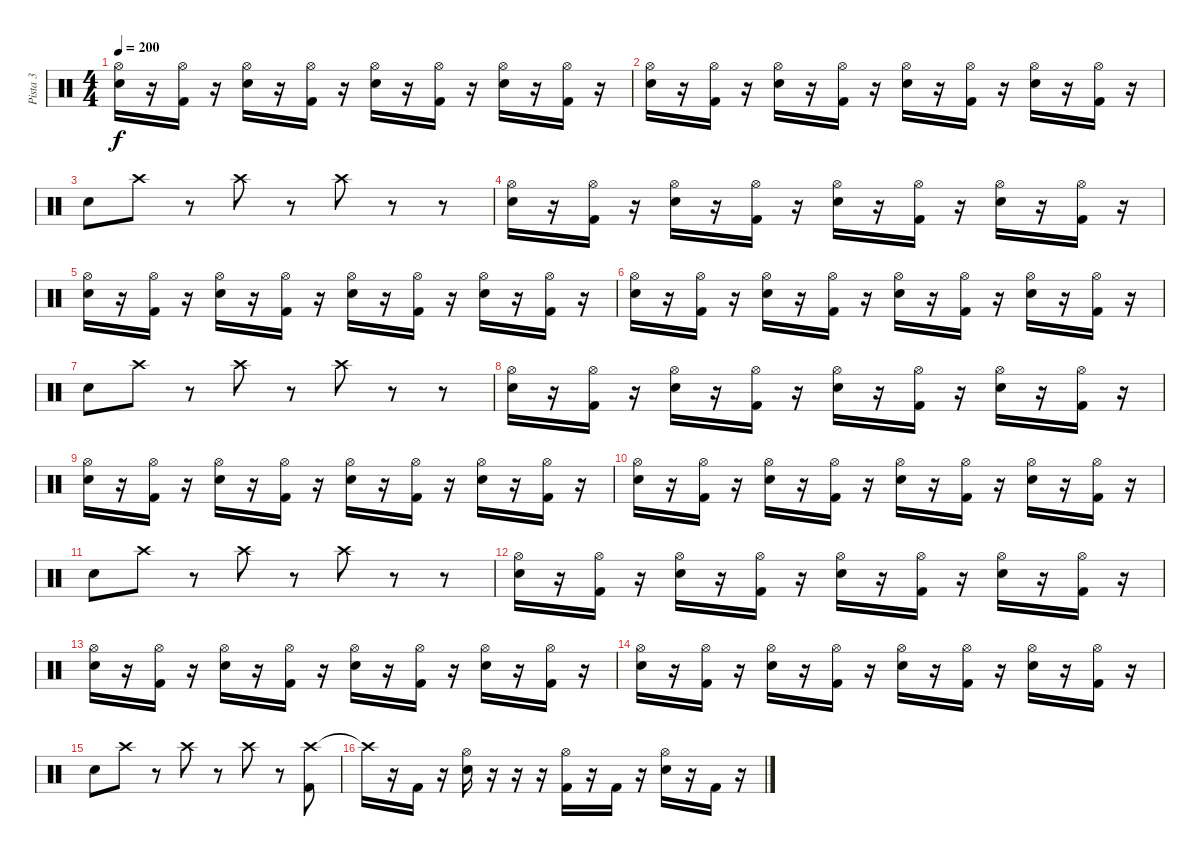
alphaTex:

\track ("Pista 3" "Pista 3") {instrument percussion}
\staff {score}
\articulation defaults
\ts (4 4)
\tempo 200
\clef neutral
\ks c
("Hi-Hat (open)" "Electric Snare (hit)").16{dy f} r.16 ("Hi-Hat (open)" "Kick (hit) 2").16 r.16 ("Hi-Hat (open)" "Electric Snare (hit)").16 r.16 ("Hi-Hat (open)" "Kick (hit) 2").16 r.16 ("Hi-Hat (open)" "Electric Snare (hit)").16 r.16 ("Hi-Hat (open)" "Kick (hit) 2").16 r.16 ("Hi-Hat (open)" "Electric Snare (hit)").16 r.16 ("Hi-Hat (open)" "Kick (hit) 2").16 r.16 |
("Hi-Hat (open)" "Electric Snare (hit)").16 r.16 ("Hi-Hat (open)" "Kick (hit) 2").16 r.16 ("Hi-Hat (open)" "Electric Snare (hit)").16 r.16 ("Hi-Hat (open)" "Kick (hit) 2").16 r.16 ("Hi-Hat (open)" "Electric Snare (hit)").16 r.16 ("Hi-Hat (open)" "Kick (hit) 2").16 r.16 ("Hi-Hat (open)" "Electric Snare (hit)").16 r.16 ("Hi-Hat (open)" "Kick (hit) 2").16 r.16 |
"Electric Snare (hit)".8 "Crash high (hit)".8 r.8 "Crash high (hit)".8 r.8 "Crash high (hit)".8 r.8 r.8 |
("Hi-Hat (open)" "Electric Snare (hit)").16 r.16 ("Hi-Hat (open)" "Kick (hit) 2").16 r.16 ("Hi-Hat (open)" "Electric Snare (hit)").16 r.16 ("Hi-Hat (open)" "Kick (hit) 2").16 r.16 ("Hi-Hat (open)" "Electric Snare (hit)").16 r.16 ("Hi-Hat (open)" "Kick (hit) 2").16 r.16 ("Hi-Hat (open)" "Electric Snare (hit)").16 r.16 ("Hi-Hat (open)" "Kick (hit) 2").16 r.16 |
("Hi-Hat (open)" "Electric Snare (hit)").16 r.16 ("Hi-Hat (open)" "Kick (hit) 2").16 r.16 ("Hi-Hat (open)" "Electric Snare (hit)").16 r.16 ("Hi-Hat (open)" "Kick (hit) 2").16 r.16 ("Hi-Hat (open)" "Electric Snare (hit)").16 r.16 ("Hi-Hat (open)" "Kick (hit) 2").16 r.16 ("Hi-Hat (open)" "Electric Snare (hit)").16 r.16 ("Hi-Hat (open)" "Kick (hit) 2").16 r.16 |
("Hi-Hat (open)" "Electric Snare (hit)").16 r.16 ("Hi-Hat (open)" "Kick (hit) 2").16 r.16 ("Hi-Hat (open)" "Electric Snare (hit)").16 r.16 ("Hi-Hat (open)" "Kick (hit) 2").16 r.16 ("Hi-Hat (open)" "Electric Snare (hit)").16 r.16 ("Hi-Hat (open)" "Kick (hit) 2").16 r.16 ("Hi-Hat (open)" "Electric Snare (hit)").16 r.16 ("Hi-Hat (open)" "Kick (hit) 2").16 r.16 |
"Electric Snare (hit)".8 "Crash high (hit)".8 r.8 "Crash high (hit)".8 r.8 "Crash high (hit)".8 r.8 r.8 |
("Hi-Hat (open)" "Electric Snare (hit)").16 r.16 ("Hi-Hat (open)" "Kick (hit) 2").16 r.16 ("Hi-Hat (open)" "Electric Snare (hit)").16 r.16 ("Hi-Hat (open)" "Kick (hit) 2").16 r.16 ("Hi-Hat (open)" "Electric Snare (hit)").16 r.16 ("Hi-Hat (open)" "Kick (hit) 2").16 r.16 ("Hi-Hat (open)" "Electric Snare (hit)").16 r.16 ("Hi-Hat (open)" "Kick (hit) 2").16 r.16 |
("Hi-Hat (open)" "Electric Snare (hit)").16 r.16 ("Hi-Hat (open)" "Kick (hit) 2").16 r.16 ("Hi-Hat (open)" "Electric Snare (hit)").16 r.16 ("Hi-Hat (open)" "Kick (hit) 2").16 r.16 ("Hi-Hat (open)" "Electric Snare (hit)").16 r.16 ("Hi-Hat (open)" "Kick (hit) 2").16 r.16 ("Hi-Hat (open)" "Electric Snare (hit)").16 r.16 ("Hi-Hat (open)" "Kick (hit) 2").16 r.16 |
("Hi-Hat (open)" "Electric Snare (hit)").16 r.16 ("Hi-Hat (open)" "Kick (hit) 2").16 r.16 ("Hi-Hat (open)" "Electric Snare (hit)").16 r.16 ("Hi-Hat (open)" "Kick (hit) 2").16 r.16 ("Hi-Hat (open)" "Electric Snare (hit)").16 r.16 ("Hi-Hat (open)" "Kick (hit) 2").16 r.16 ("Hi-Hat (open)" "Electric Snare (hit)").16 r.16 ("Hi-Hat (open)" "Kick (hit) 2").16 r.16 |
"Electric Snare (hit)".8 "Crash high (hit)".8 r.8 "Crash high (hit)".8 r.8 "Crash high (hit)".8 r.8 r.8 |
("Hi-Hat (open)" "Electric Snare (hit)").16 r.16 ("Hi-Hat (open)" "Kick (hit) 2").16 r.16 ("Hi-Hat (open)" "Electric Snare (hit)").16 r.16 ("Hi-Hat (open)" "Kick (hit) 2").16 r.16 ("Hi-Hat (open)" "Electric Snare (hit)").16 r.16 ("Hi-Hat (open)" "Kick (hit) 2").16 r.16 ("Hi-Hat (open)" "Electric Snare (hit)").16 r.16 ("Hi-Hat (open)" "Kick (hit) 2").16 r.16 |
("Hi-Hat (open)" "Electric Snare (hit)").16 r.16 ("Hi-Hat (open)" "Kick (hit) 2").16 r.16 ("Hi-Hat (open)" "Electric Snare (hit)").16 r.16 ("Hi-Hat (open)" "Kick (hit) 2").16 r.16 ("Hi-Hat (open)" "Electric Snare (hit)").16 r.16 ("Hi-Hat (open)" "Kick (hit) 2").16 r.16 ("Hi-Hat (open)" "Electric Snare (hit)").16 r.16 ("Hi-Hat (open)" "Kick (hit) 2").16 r.16 |
("Hi-Hat (open)" "Electric Snare (hit)").16 r.16 ("Hi-Hat (open)" "Kick (hit) 2").16 r.16 ("Hi-Hat (open)" "Electric Snare (hit)").16 r.16 ("Hi-Hat (open)" "Kick (hit) 2").16 r.16 ("Hi-Hat (open)" "Electric Snare (hit)").16 r.16 ("Hi-Hat (open)" "Kick (hit) 2").16 r.16 ("Hi-Hat (open)" "Electric Snare (hit)").16 r.16 ("Hi-Hat (open)" "Kick (hit) 2").16 r.16 |
"Electric Snare (hit)".8 "Crash high (hit)".8 r.8 "Crash high (hit)".8 r.8 "Crash high (hit)".8 r.8 ("Crash high (hit)" "Kick (hit) 2").8 |
"Crash high (hit)"{t}.16 r.16 "Kick (hit) 2".16 r.16 ("Hi-Hat (open)" "Electric Snare (hit)").16 r.16 r.16 r.16 ("Hi-Hat (open)" "Kick (hit) 2").16 r.16 "Kick (hit) 2".16 r.16 ("Hi-Hat (open)" "Electric Snare (hit)").16 r.16 "Kick (hit) 2".16 r.16
